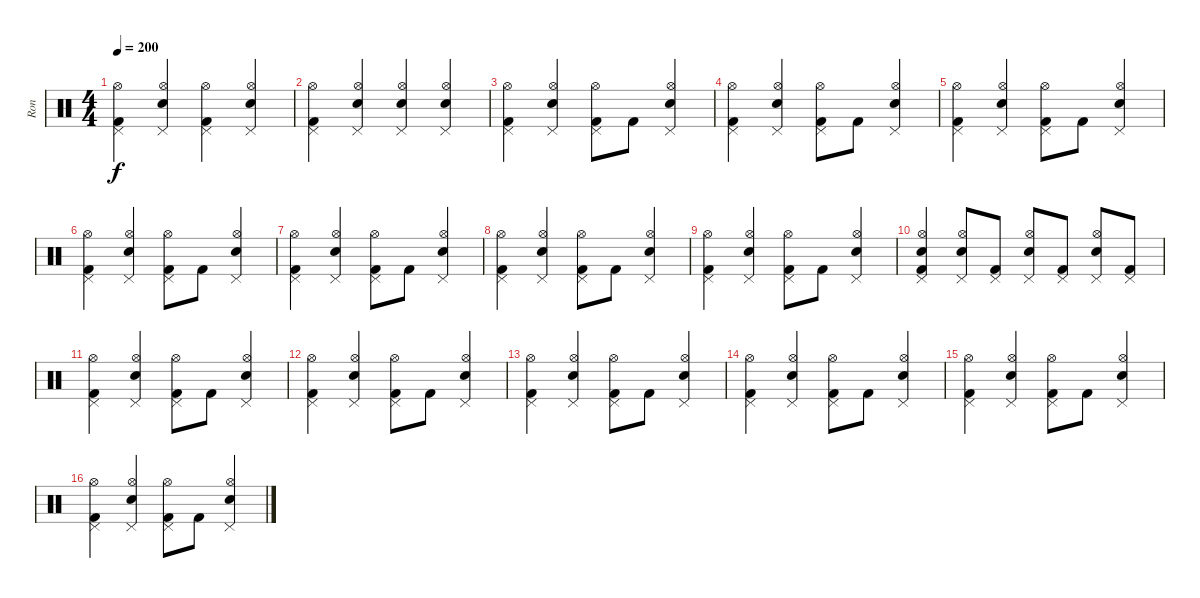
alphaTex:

\track ("Ron" "Ron") {instrument percussion}
\staff {score}
\articulation defaults
\ts (4 4)
\tempo 200
\clef neutral
\ks c
("Pedal Hi-Hat (hit)" "Kick (hit) 2" "Hi-Hat (open)").4{dy f} ("Pedal Hi-Hat (hit)" "Electric Snare (hit)" "Hi-Hat (open)").4 ("Pedal Hi-Hat (hit)" "Kick (hit) 2" "Hi-Hat (open)").4 ("Pedal Hi-Hat (hit)" "Electric Snare (hit)" "Hi-Hat (open)").4 |
("Pedal Hi-Hat (hit)" "Kick (hit) 2" "Hi-Hat (open)").4 ("Pedal Hi-Hat (hit)" "Electric Snare (hit)" "Hi-Hat (open)").4 ("Pedal Hi-Hat (hit)" "Electric Snare (hit)" "Hi-Hat (open)").4 ("Pedal Hi-Hat (hit)" "Electric Snare (hit)" "Hi-Hat (open)").4 |
("Pedal Hi-Hat (hit)" "Kick (hit) 2" "Hi-Hat (open)").4 ("Electric Snare (hit)" "Pedal Hi-Hat (hit)" "Hi-Hat (open)").4 ("Pedal Hi-Hat (hit)" "Kick (hit) 2" "Hi-Hat (open)").8 "Kick (hit) 2".8 ("Electric Snare (hit)" "Pedal Hi-Hat (hit)" "Hi-Hat (open)").4 |
("Pedal Hi-Hat (hit)" "Kick (hit) 2" "Hi-Hat (open)").4 ("Electric Snare (hit)" "Pedal Hi-Hat (hit)" "Hi-Hat (open)").4 ("Pedal Hi-Hat (hit)" "Kick (hit) 2" "Hi-Hat (open)").8 "Kick (hit) 2".8 ("Electric Snare (hit)" "Pedal Hi-Hat (hit)" "Hi-Hat (open)").4 |
("Pedal Hi-Hat (hit)" "Kick (hit) 2" "Hi-Hat (open)").4 ("Electric Snare (hit)" "Pedal Hi-Hat (hit)" "Hi-Hat (open)").4 ("Pedal Hi-Hat (hit)" "Kick (hit) 2" "Hi-Hat (open)").8 "Kick (hit) 2".8 ("Electric Snare (hit)" "Pedal Hi-Hat (hit)" "Hi-Hat (open)").4 |
("Pedal Hi-Hat (hit)" "Kick (hit) 2" "Hi-Hat (open)").4 ("Electric Snare (hit)" "Pedal Hi-Hat (hit)" "Hi-Hat (open)").4 ("Pedal Hi-Hat (hit)" "Kick (hit) 2" "Hi-Hat (open)").8 "Kick (hit) 2".8 ("Electric Snare (hit)" "Pedal Hi-Hat (hit)" "Hi-Hat (open)").4 |
("Pedal Hi-Hat (hit)" "Kick (hit) 2" "Hi-Hat (open)").4 ("Electric Snare (hit)" "Pedal Hi-Hat (hit)" "Hi-Hat (open)").4 ("Pedal Hi-Hat (hit)" "Kick (hit) 2" "Hi-Hat (open)").8 "Kick (hit) 2".8 ("Electric Snare (hit)" "Pedal Hi-Hat (hit)" "Hi-Hat (open)").4 |
("Pedal Hi-Hat (hit)" "Kick (hit) 2" "Hi-Hat (open)").4 ("Electric Snare (hit)" "Pedal Hi-Hat (hit)" "Hi-Hat (open)").4 ("Pedal Hi-Hat (hit)" "Kick (hit) 2" "Hi-Hat (open)").8 "Kick (hit) 2".8 ("Electric Snare (hit)" "Pedal Hi-Hat (hit)" "Hi-Hat (open)").4 |
("Pedal Hi-Hat (hit)" "Kick (hit) 2" "Hi-Hat (open)").4 ("Electric Snare (hit)" "Pedal Hi-Hat (hit)" "Hi-Hat (open)").4 ("Pedal Hi-Hat (hit)" "Kick (hit) 2" "Hi-Hat (open)").8 "Kick (hit) 2".8 ("Electric Snare (hit)" "Pedal Hi-Hat (hit)" "Hi-Hat (open)").4 |
("Electric Snare (hit)" "Kick (hit) 2" "Pedal Hi-Hat (hit)" "Hi-Hat (open)").4 ("Electric Snare (hit)" "Pedal Hi-Hat (hit)" "Hi-Hat (open)").8 ("Kick (hit) 2" "Pedal Hi-Hat (hit)").8 ("Electric Snare (hit)" "Pedal Hi-Hat (hit)" "Hi-Hat (open)").8 ("Kick (hit) 2" "Pedal Hi-Hat (hit)").8 ("Electric Snare (hit)" "Pedal Hi-Hat (hit)" "Hi-Hat (open)").8 ("Kick (hit) 2" "Pedal Hi-Hat (hit)").8 |
("Pedal Hi-Hat (hit)" "Kick (hit) 2" "Hi-Hat (open)").4 ("Electric Snare (hit)" "Pedal Hi-Hat (hit)" "Hi-Hat (open)").4 ("Pedal Hi-Hat (hit)" "Kick (hit) 2" "Hi-Hat (open)").8 "Kick (hit) 2".8 ("Electric Snare (hit)" "Pedal Hi-Hat (hit)" "Hi-Hat (open)").4 |
("Pedal Hi-Hat (hit)" "Kick (hit) 2" "Hi-Hat (open)").4 ("Electric Snare (hit)" "Pedal Hi-Hat (hit)" "Hi-Hat (open)").4 ("Pedal Hi-Hat (hit)" "Kick (hit) 2" "Hi-Hat (open)").8 "Kick (hit) 2".8 ("Electric Snare (hit)" "Pedal Hi-Hat (hit)" "Hi-Hat (open)").4 |
("Pedal Hi-Hat (hit)" "Kick (hit) 2" "Hi-Hat (open)").4 ("Electric Snare (hit)" "Pedal Hi-Hat (hit)" "Hi-Hat (open)").4 ("Pedal Hi-Hat (hit)" "Kick (hit) 2" "Hi-Hat (open)").8 "Kick (hit) 2".8 ("Electric Snare (hit)" "Pedal Hi-Hat (hit)" "Hi-Hat (open)").4 |
("Pedal Hi-Hat (hit)" "Kick (hit) 2" "Hi-Hat (open)").4 ("Electric Snare (hit)" "Pedal Hi-Hat (hit)" "Hi-Hat (open)").4 ("Pedal Hi-Hat (hit)" "Kick (hit) 2" "Hi-Hat (open)").8 "Kick (hit) 2".8 ("Electric Snare (hit)" "Pedal Hi-Hat (hit)" "Hi-Hat (open)").4 |
("Pedal Hi-Hat (hit)" "Kick (hit) 2" "Hi-Hat (open)").4 ("Electric Snare (hit)" "Pedal Hi-Hat (hit)" "Hi-Hat (open)").4 ("Pedal Hi-Hat (hit)" "Kick (hit) 2" "Hi-Hat (open)").8 "Kick (hit) 2".8 ("Electric Snare (hit)" "Pedal Hi-Hat (hit)" "Hi-Hat (open)").4 |
("Pedal Hi-Hat (hit)" "Kick (hit) 2" "Hi-Hat (open)").4 ("Electric Snare (hit)" "Pedal Hi-Hat (hit)" "Hi-Hat (open)").4 ("Pedal Hi-Hat (hit)" "Kick (hit) 2" "Hi-Hat (open)").8 "Kick (hit) 2".8 ("Electric Snare (hit)" "Pedal Hi-Hat (hit)" "Hi-Hat (open)").4
